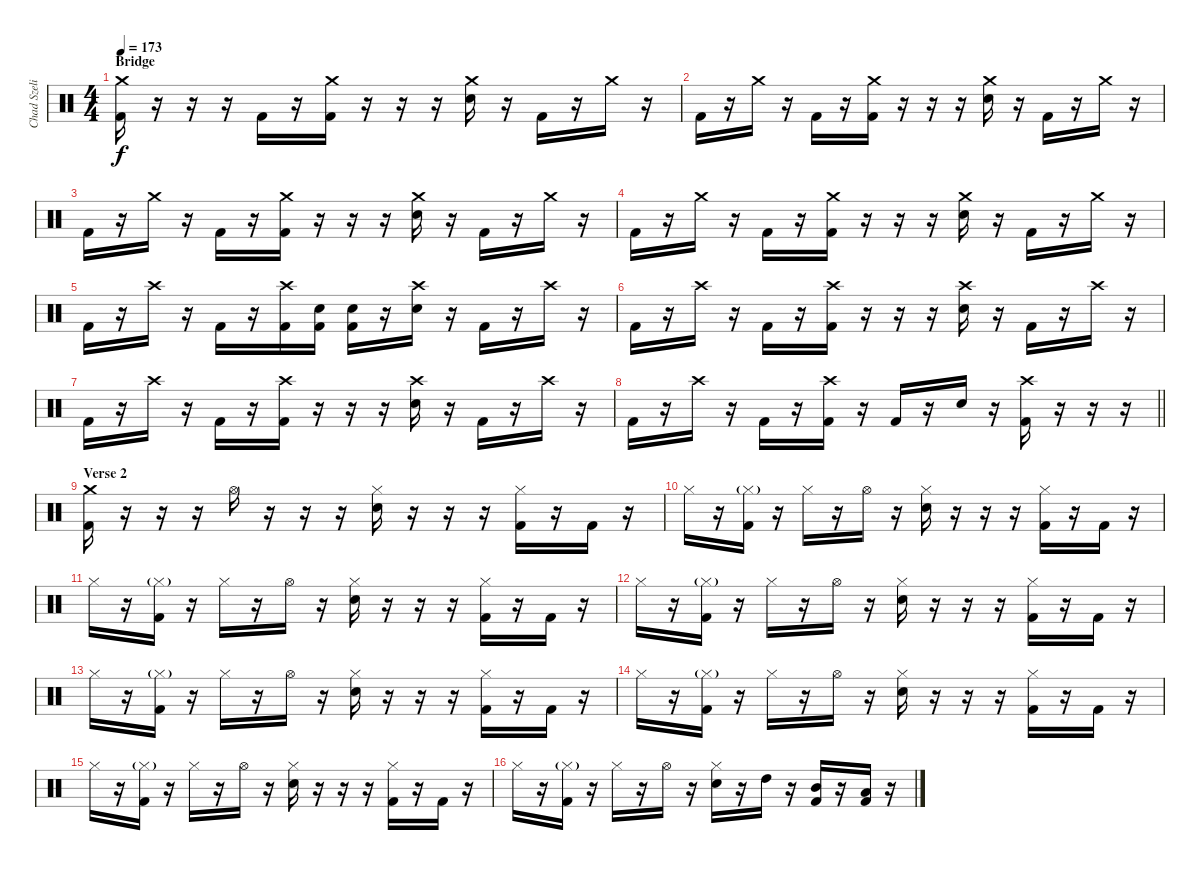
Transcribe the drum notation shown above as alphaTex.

\track ("Chad Szeliga" "Chad Szeli") {instrument percussion}
\staff {score}
\articulation defaults
\ts (4 4)
\section ("" "Bridge")
\tempo 173
\clef neutral
\ks c
("Crash medium (hit)" "Kick (hit) 2").16{dy f} r.16 r.16 r.16 "Kick (hit) 2".16 r.16 ("Crash medium (hit)" "Kick (hit) 2").16 r.16 r.16 r.16 ("Crash medium (hit)" "Electric Snare (hit)").16 r.16 "Kick (hit) 2".16 r.16 "Crash medium (hit)".16 r.16 |
"Kick (hit) 2".16 r.16 "Crash medium (hit)".16 r.16 "Kick (hit) 2".16 r.16 ("Crash medium (hit)" "Kick (hit) 2").16 r.16 r.16 r.16 ("Crash medium (hit)" "Electric Snare (hit)").16 r.16 "Kick (hit) 2".16 r.16 "Crash medium (hit)".16 r.16 |
"Kick (hit) 2".16 r.16 "Crash medium (hit)".16 r.16 "Kick (hit) 2".16 r.16 ("Crash medium (hit)" "Kick (hit) 2").16 r.16 r.16 r.16 ("Crash medium (hit)" "Electric Snare (hit)").16 r.16 "Kick (hit) 2".16 r.16 "Crash medium (hit)".16 r.16 |
"Kick (hit) 2".16 r.16 "Crash medium (hit)".16 r.16 "Kick (hit) 2".16 r.16 ("Crash medium (hit)" "Kick (hit) 2").16 r.16 r.16 r.16 ("Crash medium (hit)" "Electric Snare (hit)").16 r.16 "Kick (hit) 2".16 r.16 "Crash medium (hit)".16 r.16 |
"Kick (hit) 2".16 r.16 "Crash high (hit)".16 r.16 "Kick (hit) 2".16 r.16 ("Crash high (hit)" "Kick (hit) 2").16 ("Electric Snare (hit)" "Kick (hit) 2").16 ("Electric Snare (hit)" "Kick (hit) 2").16 r.16 ("Crash high (hit)" "Electric Snare (hit)").16 r.16 "Kick (hit) 2".16 r.16 "Crash high (hit)".16 r.16 |
"Kick (hit) 2".16 r.16 "Crash high (hit)".16 r.16 "Kick (hit) 2".16 r.16 ("Crash high (hit)" "Kick (hit) 2").16 r.16 r.16 r.16 ("Crash high (hit)" "Electric Snare (hit)").16 r.16 "Kick (hit) 2".16 r.16 "Crash high (hit)".16 r.16 |
"Kick (hit) 2".16 r.16 "Crash high (hit)".16 r.16 "Kick (hit) 2".16 r.16 ("Crash high (hit)" "Kick (hit) 2").16 r.16 r.16 r.16 ("Crash high (hit)" "Electric Snare (hit)").16 r.16 "Kick (hit) 2".16 r.16 "Crash high (hit)".16 r.16 |
\barLineRight lightlight "Kick (hit) 2".16
r.16 "Crash high (hit)".16 r.16 "Kick (hit) 2".16 r.16 ("Crash high (hit)" "Kick (hit) 2").16 r.16 "Kick (hit) 2".16 r.16 "Electric Snare (hit)".16 r.16 ("Crash high (hit)" "Kick (hit) 2").16 r.16 r.16 r.16 |
\section ("" "Verse 2")
("Crash medium (hit)" "Kick (hit) 2").16 r.16 r.16 r.16 "Hi-Hat (open)".16 r.16 r.16 r.16 ("Hi-Hat (closed)" "Electric Snare (hit)").16 r.16 r.16 r.16 ("Hi-Hat (closed)" "Kick (hit) 2").16 r.16 "Kick (hit) 2".16 r.16 |
"Hi-Hat (closed)".16 r.16 ("Hi-Hat (closed)"{g} "Kick (hit) 2").16 r.16 "Hi-Hat (closed)".16 r.16 "Hi-Hat (open)".16 r.16 ("Hi-Hat (closed)" "Electric Snare (hit)").16 r.16 r.16 r.16 ("Hi-Hat (closed)" "Kick (hit) 2").16 r.16 "Kick (hit) 2".16 r.16 |
"Hi-Hat (closed)".16 r.16 ("Hi-Hat (closed)"{g} "Kick (hit) 2").16 r.16 "Hi-Hat (closed)".16 r.16 "Hi-Hat (open)".16 r.16 ("Hi-Hat (closed)" "Electric Snare (hit)").16 r.16 r.16 r.16 ("Hi-Hat (closed)" "Kick (hit) 2").16 r.16 "Kick (hit) 2".16 r.16 |
"Hi-Hat (closed)".16 r.16 ("Hi-Hat (closed)"{g} "Kick (hit) 2").16 r.16 "Hi-Hat (closed)".16 r.16 "Hi-Hat (open)".16 r.16 ("Hi-Hat (closed)" "Electric Snare (hit)").16 r.16 r.16 r.16 ("Hi-Hat (closed)" "Kick (hit) 2").16 r.16 "Kick (hit) 2".16 r.16 |
"Hi-Hat (closed)".16 r.16 ("Hi-Hat (closed)"{g} "Kick (hit) 2").16 r.16 "Hi-Hat (closed)".16 r.16 "Hi-Hat (open)".16 r.16 ("Hi-Hat (closed)" "Electric Snare (hit)").16 r.16 r.16 r.16 ("Hi-Hat (closed)" "Kick (hit) 2").16 r.16 "Kick (hit) 2".16 r.16 |
"Hi-Hat (closed)".16 r.16 ("Hi-Hat (closed)"{g} "Kick (hit) 2").16 r.16 "Hi-Hat (closed)".16 r.16 "Hi-Hat (open)".16 r.16 ("Hi-Hat (closed)" "Electric Snare (hit)").16 r.16 r.16 r.16 ("Hi-Hat (closed)" "Kick (hit) 2").16 r.16 "Kick (hit) 2".16 r.16 |
"Hi-Hat (closed)".16 r.16 ("Hi-Hat (closed)"{g} "Kick (hit) 2").16 r.16 "Hi-Hat (closed)".16 r.16 "Hi-Hat (open)".16 r.16 ("Hi-Hat (closed)" "Electric Snare (hit)").16 r.16 r.16 r.16 ("Hi-Hat (closed)" "Kick (hit) 2").16 r.16 "Kick (hit) 2".16 r.16 |
"Hi-Hat (closed)".16 r.16 ("Hi-Hat (closed)"{g} "Kick (hit) 2").16 r.16 "Hi-Hat (closed)".16 r.16 "Hi-Hat (open)".16 r.16 ("Hi-Hat (closed)" "Electric Snare (hit)").16 r.16 "High Tom (hit)".16 r.16 ("Mid Tom (hit)" "Kick (hit) 2").16 r.16 ("Low Tom (hit)" "Kick (hit) 2").16 r.16
